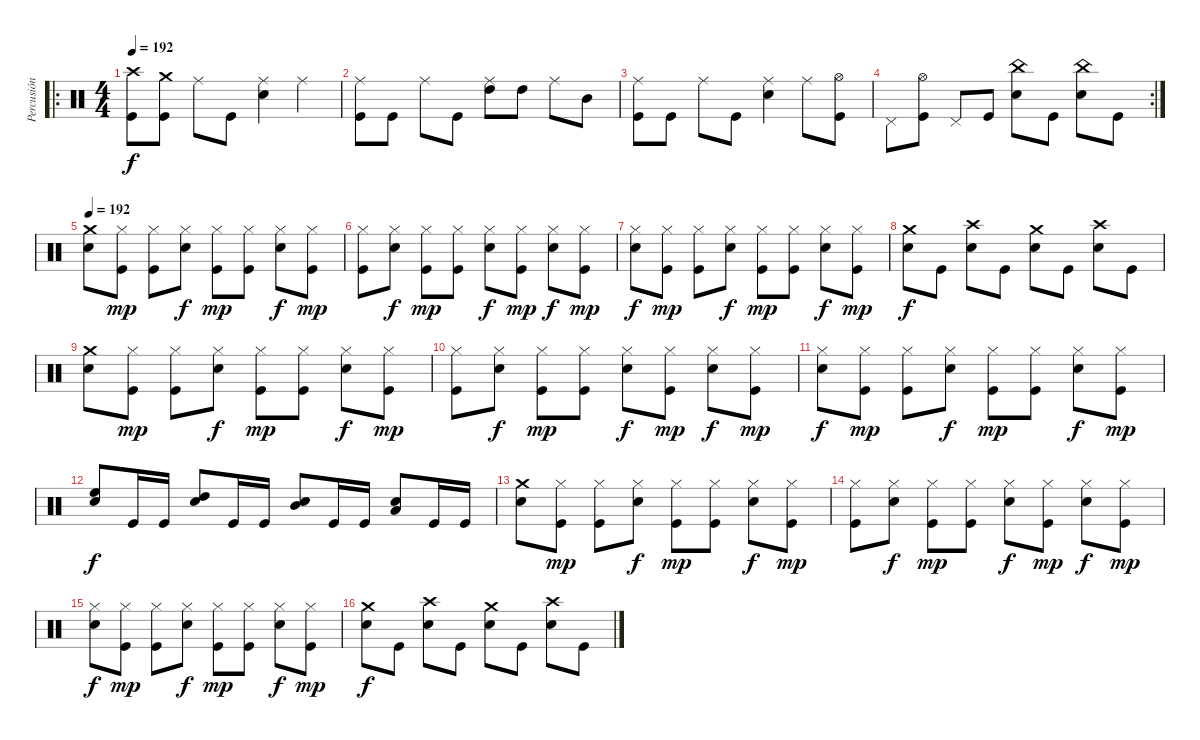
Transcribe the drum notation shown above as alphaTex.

\track ("Percusión" "Percusión") {instrument percussion}
\staff {score}
\articulation defaults
\ro
\ts (4 4)
\tempo 192
\clef neutral
\ks c
("Crash high (hit)" "Kick (hit)").8{dy f} ("Crash medium (hit)" "Kick (hit)").8 "Ride (middle)".8 "Kick (hit)".8 ("Ride (middle)" "Electric Snare (hit)").4 "Ride (middle)".4 |
("Ride (middle)" "Kick (hit)").8 "Kick (hit)".8 "Ride (middle)".8 "Kick (hit)".8 ("Ride (middle)" "High Tom (hit)").8 "High Tom (hit)".8 "Ride (middle)".8 "Mid Tom (hit)".8 |
("Ride (middle)" "Kick (hit)").8 "Kick (hit)".8 "Ride (middle)".8 "Kick (hit)".8 ("Ride (middle)" "Electric Snare (hit)").4 "Ride (middle)".8 ("Hi-Hat (open)" "Kick (hit)").8 |
\rc 2 "Pedal Hi-Hat (hit)".8
("Hi-Hat (open)" "Kick (hit)").8 "Pedal Hi-Hat (hit)".8 "Kick (hit)".8 ("China (hit)" "Electric Snare (hit)").8 "Kick (hit)".8 ("China (hit)" "Electric Snare (hit)").8 "Kick (hit)".8 |
\tempo 192
("Crash medium (hit)" "Electric Snare (hit)").8 ("Hi-Hat (closed)" "Kick (hit)").8{dy mp} ("Hi-Hat (closed)" "Kick (hit)").8 ("Hi-Hat (closed)" "Electric Snare (hit)").8{dy f} ("Hi-Hat (closed)" "Kick (hit)").8{dy mp} ("Hi-Hat (closed)" "Kick (hit)").8 ("Hi-Hat (closed)" "Electric Snare (hit)").8{dy f} ("Hi-Hat (closed)" "Kick (hit)").8{dy mp} |
("Hi-Hat (closed)" "Kick (hit)").8 ("Hi-Hat (closed)" "Electric Snare (hit)").8{dy f} ("Hi-Hat (closed)" "Kick (hit)").8{dy mp} ("Hi-Hat (closed)" "Kick (hit)").8 ("Hi-Hat (closed)" "Electric Snare (hit)").8{dy f} ("Hi-Hat (closed)" "Kick (hit)").8{dy mp} ("Hi-Hat (closed)" "Electric Snare (hit)").8{dy f} ("Hi-Hat (closed)" "Kick (hit)").8{dy mp} |
("Hi-Hat (closed)" "Electric Snare (hit)").8{dy f} ("Hi-Hat (closed)" "Kick (hit)").8{dy mp} ("Hi-Hat (closed)" "Kick (hit)").8 ("Hi-Hat (closed)" "Electric Snare (hit)").8{dy f} ("Hi-Hat (closed)" "Kick (hit)").8{dy mp} ("Hi-Hat (closed)" "Kick (hit)").8 ("Hi-Hat (closed)" "Electric Snare (hit)").8{dy f} ("Hi-Hat (closed)" "Kick (hit)").8{dy mp} |
("Crash medium (hit)" "Electric Snare (hit)").8{dy f} "Kick (hit)".8 ("Crash high (hit)" "Electric Snare (hit)").8 "Kick (hit)".8 ("Crash medium (hit)" "Electric Snare (hit)").8 "Kick (hit)".8 ("Crash high (hit)" "Electric Snare (hit)").8 "Kick (hit)".8 |
("Crash medium (hit)" "Electric Snare (hit)").8 ("Hi-Hat (closed)" "Kick (hit)").8{dy mp} ("Hi-Hat (closed)" "Kick (hit)").8 ("Hi-Hat (closed)" "Electric Snare (hit)").8{dy f} ("Hi-Hat (closed)" "Kick (hit)").8{dy mp} ("Hi-Hat (closed)" "Kick (hit)").8 ("Hi-Hat (closed)" "Electric Snare (hit)").8{dy f} ("Hi-Hat (closed)" "Kick (hit)").8{dy mp} |
("Hi-Hat (closed)" "Kick (hit)").8 ("Hi-Hat (closed)" "Electric Snare (hit)").8{dy f} ("Hi-Hat (closed)" "Kick (hit)").8{dy mp} ("Hi-Hat (closed)" "Kick (hit)").8 ("Hi-Hat (closed)" "Electric Snare (hit)").8{dy f} ("Hi-Hat (closed)" "Kick (hit)").8{dy mp} ("Hi-Hat (closed)" "Electric Snare (hit)").8{dy f} ("Hi-Hat (closed)" "Kick (hit)").8{dy mp} |
("Hi-Hat (closed)" "Electric Snare (hit)").8{dy f} ("Hi-Hat (closed)" "Kick (hit)").8{dy mp} ("Hi-Hat (closed)" "Kick (hit)").8 ("Hi-Hat (closed)" "Electric Snare (hit)").8{dy f} ("Hi-Hat (closed)" "Kick (hit)").8{dy mp} ("Hi-Hat (closed)" "Kick (hit)").8 ("Hi-Hat (closed)" "Electric Snare (hit)").8{dy f} ("Hi-Hat (closed)" "Kick (hit)").8{dy mp} |
("High Floor Tom (hit)" "Electric Snare (hit)").8{dy f} "Kick (hit)".16 "Kick (hit)".16 ("High Tom (hit)" "Electric Snare (hit)").8 "Kick (hit)".16 "Kick (hit)".16 ("Electric Snare (hit)" "Mid Tom (hit)").8 "Kick (hit)".16 "Kick (hit)".16 ("Electric Snare (hit)" "Low Tom (hit)").8 "Kick (hit)".16 "Kick (hit)".16 |
("Crash medium (hit)" "Electric Snare (hit)").8 ("Hi-Hat (closed)" "Kick (hit)").8{dy mp} ("Hi-Hat (closed)" "Kick (hit)").8 ("Hi-Hat (closed)" "Electric Snare (hit)").8{dy f} ("Hi-Hat (closed)" "Kick (hit)").8{dy mp} ("Hi-Hat (closed)" "Kick (hit)").8 ("Hi-Hat (closed)" "Electric Snare (hit)").8{dy f} ("Hi-Hat (closed)" "Kick (hit)").8{dy mp} |
("Hi-Hat (closed)" "Kick (hit)").8 ("Hi-Hat (closed)" "Electric Snare (hit)").8{dy f} ("Hi-Hat (closed)" "Kick (hit)").8{dy mp} ("Hi-Hat (closed)" "Kick (hit)").8 ("Hi-Hat (closed)" "Electric Snare (hit)").8{dy f} ("Hi-Hat (closed)" "Kick (hit)").8{dy mp} ("Hi-Hat (closed)" "Electric Snare (hit)").8{dy f} ("Hi-Hat (closed)" "Kick (hit)").8{dy mp} |
("Hi-Hat (closed)" "Electric Snare (hit)").8{dy f} ("Hi-Hat (closed)" "Kick (hit)").8{dy mp} ("Hi-Hat (closed)" "Kick (hit)").8 ("Hi-Hat (closed)" "Electric Snare (hit)").8{dy f} ("Hi-Hat (closed)" "Kick (hit)").8{dy mp} ("Hi-Hat (closed)" "Kick (hit)").8 ("Hi-Hat (closed)" "Electric Snare (hit)").8{dy f} ("Hi-Hat (closed)" "Kick (hit)").8{dy mp} |
("Crash medium (hit)" "Electric Snare (hit)").8{dy f} "Kick (hit)".8 ("Crash high (hit)" "Electric Snare (hit)").8 "Kick (hit)".8 ("Crash medium (hit)" "Electric Snare (hit)").8 "Kick (hit)".8 ("Crash high (hit)" "Electric Snare (hit)").8 "Kick (hit)".8
